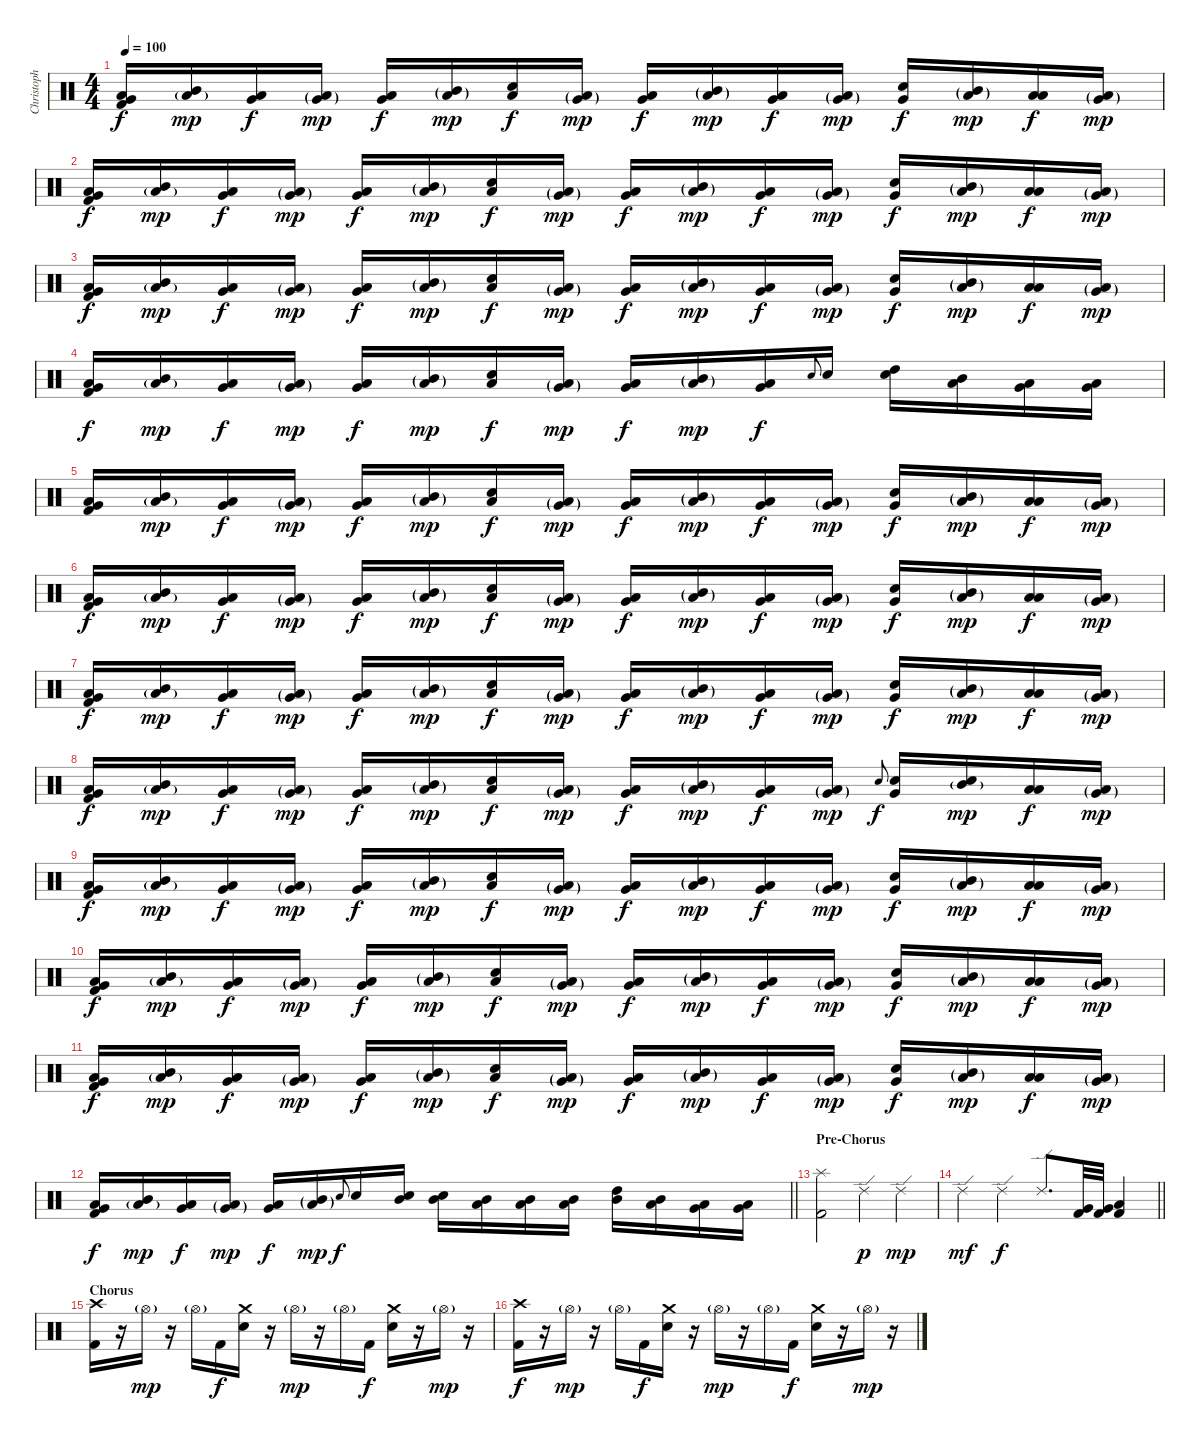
\track ("Christoph Schneider" "Christoph ") {instrument percussion}
\staff {score}
\articulation defaults
\ts (4 4)
\tempo 100
\clef neutral
\ks c
("Very Low Tom (hit)" "Low Tom (hit)" "Kick (hit) 2").16{dy f} ("Low Tom (hit)"{g} "Mid Tom (hit)").16{dy mp} ("Low Floor Tom (hit)" "Very Low Tom (hit)").16{dy f} ("Very Low Tom (hit)"{g} "Low Tom (hit)"{g}).16{dy mp} ("Very Low Tom (hit)" "Low Floor Tom (hit)").16{dy f} ("Low Tom (hit)"{g} "Mid Tom (hit)"{g}).16{dy mp} ("Low Floor Tom (hit)" "Snare (hit) 2").16{dy f} ("Low Tom (hit)"{g} "Very Low Tom (hit)"{g}).16{dy mp} ("Very Low Tom (hit)" "Low Tom (hit)").16{dy f} ("Mid Tom (hit)"{g} "Low Tom (hit)"{g}).16{dy mp} ("Low Floor Tom (hit)" "Very Low Tom (hit)").16{dy f} ("Low Tom (hit)"{g} "Very Low Tom (hit)"{g}).16{dy mp} ("Very Low Tom (hit)" "Snare (hit) 2").16{dy f} ("Mid Tom (hit)"{g} "Low Tom (hit)"{g}).16{dy mp} ("Low Floor Tom (hit)" "Low Tom (hit)").16{dy f} ("Low Tom (hit)"{g} "Very Low Tom (hit)"{g}).16{dy mp} |
("Very Low Tom (hit)" "Low Tom (hit)" "Kick (hit) 2").16{dy f} ("Low Tom (hit)"{g} "Mid Tom (hit)").16{dy mp} ("Low Floor Tom (hit)" "Very Low Tom (hit)").16{dy f} ("Very Low Tom (hit)"{g} "Low Tom (hit)"{g}).16{dy mp} ("Very Low Tom (hit)" "Low Floor Tom (hit)").16{dy f} ("Low Tom (hit)"{g} "Mid Tom (hit)"{g}).16{dy mp} ("Low Floor Tom (hit)" "Snare (hit) 2").16{dy f} ("Low Tom (hit)"{g} "Very Low Tom (hit)"{g}).16{dy mp} ("Very Low Tom (hit)" "Low Tom (hit)").16{dy f} ("Mid Tom (hit)"{g} "Low Tom (hit)"{g}).16{dy mp} ("Low Floor Tom (hit)" "Very Low Tom (hit)").16{dy f} ("Low Tom (hit)"{g} "Very Low Tom (hit)"{g}).16{dy mp} ("Very Low Tom (hit)" "Snare (hit) 2").16{dy f} ("Mid Tom (hit)"{g} "Low Tom (hit)"{g}).16{dy mp} ("Low Floor Tom (hit)" "Low Tom (hit)").16{dy f} ("Low Tom (hit)"{g} "Very Low Tom (hit)"{g}).16{dy mp} |
("Very Low Tom (hit)" "Low Tom (hit)" "Kick (hit) 2").16{dy f} ("Low Tom (hit)"{g} "Mid Tom (hit)").16{dy mp} ("Low Floor Tom (hit)" "Very Low Tom (hit)").16{dy f} ("Very Low Tom (hit)"{g} "Low Tom (hit)"{g}).16{dy mp} ("Very Low Tom (hit)" "Low Floor Tom (hit)").16{dy f} ("Low Tom (hit)"{g} "Mid Tom (hit)"{g}).16{dy mp} ("Low Floor Tom (hit)" "Snare (hit) 2").16{dy f} ("Low Tom (hit)"{g} "Very Low Tom (hit)"{g}).16{dy mp} ("Very Low Tom (hit)" "Low Tom (hit)").16{dy f} ("Mid Tom (hit)"{g} "Low Tom (hit)"{g}).16{dy mp} ("Low Floor Tom (hit)" "Very Low Tom (hit)").16{dy f} ("Low Tom (hit)"{g} "Very Low Tom (hit)"{g}).16{dy mp} ("Very Low Tom (hit)" "Snare (hit) 2").16{dy f} ("Mid Tom (hit)"{g} "Low Tom (hit)"{g}).16{dy mp} ("Low Floor Tom (hit)" "Low Tom (hit)").16{dy f} ("Low Tom (hit)"{g} "Very Low Tom (hit)"{g}).16{dy mp} |
("Very Low Tom (hit)" "Low Tom (hit)" "Kick (hit) 2").16{dy f} ("Low Tom (hit)"{g} "Mid Tom (hit)").16{dy mp} ("Low Floor Tom (hit)" "Very Low Tom (hit)").16{dy f} ("Very Low Tom (hit)"{g} "Low Tom (hit)"{g}).16{dy mp} ("Very Low Tom (hit)" "Low Floor Tom (hit)").16{dy f} ("Low Tom (hit)"{g} "Mid Tom (hit)"{g}).16{dy mp} ("Low Floor Tom (hit)" "Snare (hit) 2").16{dy f} ("Low Tom (hit)"{g} "Very Low Tom (hit)"{g}).16{dy mp} ("Very Low Tom (hit)" "Low Tom (hit)").16{dy f} ("Mid Tom (hit)"{g} "Low Tom (hit)"{g}).16{dy mp} ("Low Floor Tom (hit)" "Very Low Tom (hit)").16{dy f} "Snare (hit) 2".8{gr onbeat} "Snare (hit) 2".16 ("High Tom (hit)" "Snare (hit) 2").16 ("Mid Tom (hit)" "Low Tom (hit)").16 ("Low Tom (hit)" "Very Low Tom (hit)").16 ("Very Low Tom (hit)" "Low Floor Tom (hit)").16 |
("Very Low Tom (hit)" "Low Tom (hit)" "Kick (hit) 2").16 ("Low Tom (hit)"{g} "Mid Tom (hit)").16{dy mp} ("Low Floor Tom (hit)" "Very Low Tom (hit)").16{dy f} ("Very Low Tom (hit)"{g} "Low Tom (hit)"{g}).16{dy mp} ("Very Low Tom (hit)" "Low Floor Tom (hit)").16{dy f} ("Low Tom (hit)"{g} "Mid Tom (hit)"{g}).16{dy mp} ("Low Floor Tom (hit)" "Snare (hit) 2").16{dy f} ("Low Tom (hit)"{g} "Very Low Tom (hit)"{g}).16{dy mp} ("Very Low Tom (hit)" "Low Tom (hit)").16{dy f} ("Mid Tom (hit)"{g} "Low Tom (hit)"{g}).16{dy mp} ("Low Floor Tom (hit)" "Very Low Tom (hit)").16{dy f} ("Low Tom (hit)"{g} "Very Low Tom (hit)"{g}).16{dy mp} ("Very Low Tom (hit)" "Snare (hit) 2").16{dy f} ("Mid Tom (hit)"{g} "Low Tom (hit)"{g}).16{dy mp} ("Low Floor Tom (hit)" "Low Tom (hit)").16{dy f} ("Low Tom (hit)"{g} "Very Low Tom (hit)"{g}).16{dy mp} |
("Very Low Tom (hit)" "Low Tom (hit)" "Kick (hit) 2").16{dy f} ("Low Tom (hit)"{g} "Mid Tom (hit)").16{dy mp} ("Low Floor Tom (hit)" "Very Low Tom (hit)").16{dy f} ("Very Low Tom (hit)"{g} "Low Tom (hit)"{g}).16{dy mp} ("Very Low Tom (hit)" "Low Floor Tom (hit)").16{dy f} ("Low Tom (hit)"{g} "Mid Tom (hit)"{g}).16{dy mp} ("Low Floor Tom (hit)" "Snare (hit) 2").16{dy f} ("Low Tom (hit)"{g} "Very Low Tom (hit)"{g}).16{dy mp} ("Very Low Tom (hit)" "Low Tom (hit)").16{dy f} ("Mid Tom (hit)"{g} "Low Tom (hit)"{g}).16{dy mp} ("Low Floor Tom (hit)" "Very Low Tom (hit)").16{dy f} ("Low Tom (hit)"{g} "Very Low Tom (hit)"{g}).16{dy mp} ("Very Low Tom (hit)" "Snare (hit) 2").16{dy f} ("Mid Tom (hit)"{g} "Low Tom (hit)"{g}).16{dy mp} ("Low Floor Tom (hit)" "Low Tom (hit)").16{dy f} ("Low Tom (hit)"{g} "Very Low Tom (hit)"{g}).16{dy mp} |
("Very Low Tom (hit)" "Low Tom (hit)" "Kick (hit) 2").16{dy f} ("Low Tom (hit)"{g} "Mid Tom (hit)").16{dy mp} ("Low Floor Tom (hit)" "Very Low Tom (hit)").16{dy f} ("Very Low Tom (hit)"{g} "Low Tom (hit)"{g}).16{dy mp} ("Very Low Tom (hit)" "Low Floor Tom (hit)").16{dy f} ("Low Tom (hit)"{g} "Mid Tom (hit)"{g}).16{dy mp} ("Low Floor Tom (hit)" "Snare (hit) 2").16{dy f} ("Low Tom (hit)"{g} "Very Low Tom (hit)"{g}).16{dy mp} ("Very Low Tom (hit)" "Low Tom (hit)").16{dy f} ("Mid Tom (hit)"{g} "Low Tom (hit)"{g}).16{dy mp} ("Low Floor Tom (hit)" "Very Low Tom (hit)").16{dy f} ("Low Tom (hit)"{g} "Very Low Tom (hit)"{g}).16{dy mp} ("Very Low Tom (hit)" "Snare (hit) 2").16{dy f} ("Mid Tom (hit)"{g} "Low Tom (hit)"{g}).16{dy mp} ("Low Floor Tom (hit)" "Low Tom (hit)").16{dy f} ("Low Tom (hit)"{g} "Very Low Tom (hit)"{g}).16{dy mp} |
("Very Low Tom (hit)" "Low Tom (hit)" "Kick (hit) 2").16{dy f} ("Low Tom (hit)"{g} "Mid Tom (hit)").16{dy mp} ("Low Floor Tom (hit)" "Very Low Tom (hit)").16{dy f} ("Very Low Tom (hit)"{g} "Low Tom (hit)"{g}).16{dy mp} ("Very Low Tom (hit)" "Low Floor Tom (hit)").16{dy f} ("Low Tom (hit)"{g} "Mid Tom (hit)"{g}).16{dy mp} ("Low Floor Tom (hit)" "Snare (hit) 2").16{dy f} ("Low Tom (hit)"{g} "Very Low Tom (hit)"{g}).16{dy mp} ("Very Low Tom (hit)" "Low Tom (hit)").16{dy f} ("Mid Tom (hit)"{g} "Low Tom (hit)"{g}).16{dy mp} ("Low Floor Tom (hit)" "Very Low Tom (hit)").16{dy f} ("Low Tom (hit)"{g} "Very Low Tom (hit)"{g}).16{dy mp} "Snare (hit) 2".8{gr onbeat dy f} ("Very Low Tom (hit)" "Snare (hit) 2").16 ("Mid Tom (hit)"{g} "Snare (hit) 2").16{dy mp} ("Low Floor Tom (hit)" "Low Tom (hit)").16{dy f} ("Low Tom (hit)"{g} "Very Low Tom (hit)"{g}).16{dy mp} |
("Very Low Tom (hit)" "Low Tom (hit)" "Kick (hit) 2").16{dy f} ("Low Tom (hit)"{g} "Mid Tom (hit)").16{dy mp} ("Low Floor Tom (hit)" "Very Low Tom (hit)").16{dy f} ("Very Low Tom (hit)"{g} "Low Tom (hit)"{g}).16{dy mp} ("Very Low Tom (hit)" "Low Floor Tom (hit)").16{dy f} ("Low Tom (hit)"{g} "Mid Tom (hit)"{g}).16{dy mp} ("Low Floor Tom (hit)" "Snare (hit) 2").16{dy f} ("Low Tom (hit)"{g} "Very Low Tom (hit)"{g}).16{dy mp} ("Very Low Tom (hit)" "Low Tom (hit)").16{dy f} ("Mid Tom (hit)"{g} "Low Tom (hit)"{g}).16{dy mp} ("Low Floor Tom (hit)" "Very Low Tom (hit)").16{dy f} ("Low Tom (hit)"{g} "Very Low Tom (hit)"{g}).16{dy mp} ("Very Low Tom (hit)" "Snare (hit) 2").16{dy f} ("Mid Tom (hit)"{g} "Low Tom (hit)"{g}).16{dy mp} ("Low Floor Tom (hit)" "Low Tom (hit)").16{dy f} ("Low Tom (hit)"{g} "Very Low Tom (hit)"{g}).16{dy mp} |
("Very Low Tom (hit)" "Low Tom (hit)" "Kick (hit) 2").16{dy f} ("Low Tom (hit)"{g} "Mid Tom (hit)").16{dy mp} ("Low Floor Tom (hit)" "Very Low Tom (hit)").16{dy f} ("Very Low Tom (hit)"{g} "Low Tom (hit)"{g}).16{dy mp} ("Very Low Tom (hit)" "Low Floor Tom (hit)").16{dy f} ("Low Tom (hit)"{g} "Mid Tom (hit)"{g}).16{dy mp} ("Low Floor Tom (hit)" "Snare (hit) 2").16{dy f} ("Low Tom (hit)"{g} "Very Low Tom (hit)"{g}).16{dy mp} ("Very Low Tom (hit)" "Low Tom (hit)").16{dy f} ("Mid Tom (hit)"{g} "Low Tom (hit)"{g}).16{dy mp} ("Low Floor Tom (hit)" "Very Low Tom (hit)").16{dy f} ("Low Tom (hit)"{g} "Very Low Tom (hit)"{g}).16{dy mp} ("Very Low Tom (hit)" "Snare (hit) 2").16{dy f} ("Mid Tom (hit)"{g} "Low Tom (hit)"{g}).16{dy mp} ("Low Floor Tom (hit)" "Low Tom (hit)").16{dy f} ("Low Tom (hit)"{g} "Very Low Tom (hit)"{g}).16{dy mp} |
("Very Low Tom (hit)" "Low Tom (hit)" "Kick (hit) 2").16{dy f} ("Low Tom (hit)"{g} "Mid Tom (hit)").16{dy mp} ("Low Floor Tom (hit)" "Very Low Tom (hit)").16{dy f} ("Very Low Tom (hit)"{g} "Low Tom (hit)"{g}).16{dy mp} ("Very Low Tom (hit)" "Low Floor Tom (hit)").16{dy f} ("Low Tom (hit)"{g} "Mid Tom (hit)"{g}).16{dy mp} ("Low Floor Tom (hit)" "Snare (hit) 2").16{dy f} ("Low Tom (hit)"{g} "Very Low Tom (hit)"{g}).16{dy mp} ("Very Low Tom (hit)" "Low Tom (hit)").16{dy f} ("Mid Tom (hit)"{g} "Low Tom (hit)"{g}).16{dy mp} ("Low Floor Tom (hit)" "Very Low Tom (hit)").16{dy f} ("Low Tom (hit)"{g} "Very Low Tom (hit)"{g}).16{dy mp} ("Very Low Tom (hit)" "Snare (hit) 2").16{dy f} ("Mid Tom (hit)"{g} "Low Tom (hit)"{g}).16{dy mp} ("Low Floor Tom (hit)" "Low Tom (hit)").16{dy f} ("Low Tom (hit)"{g} "Very Low Tom (hit)"{g}).16{dy mp} |
\barLineRight lightlight
("Very Low Tom (hit)" "Low Tom (hit)" "Kick (hit) 2").16{dy f} ("Low Tom (hit)"{g} "Mid Tom (hit)").16{dy mp} ("Low Floor Tom (hit)" "Very Low Tom (hit)").16{dy f} ("Very Low Tom (hit)"{g} "Low Tom (hit)"{g}).16{dy mp} ("Very Low Tom (hit)" "Low Floor Tom (hit)").16{dy f} ("Low Tom (hit)"{g} "Mid Tom (hit)"{g}).16{dy mp} "Snare (hit) 2".8{gr onbeat dy f} "Snare (hit) 2".16 ("Mid Tom (hit)" "Snare (hit) 2").16 ("Mid Tom (hit)" "Snare (hit) 2").16 ("Mid Tom (hit)" "Low Tom (hit)").16 ("Mid Tom (hit)" "Low Tom (hit)").16 ("Mid Tom (hit)" "Low Tom (hit)").16 ("High Tom (hit)" "Mid Tom (hit)").16 ("Mid Tom (hit)" "Low Tom (hit)").16 ("Low Tom (hit)" "Very Low Tom (hit)").16 ("Very Low Tom (hit)" "Low Floor Tom (hit)").16 |
\section ("" "Pre-Chorus")
("Splash (hit)" "Kick (hit) 2").2 "Ride (edge) 2".4{dy p} "Ride (edge) 2".4{dy mp} |
\barLineRight lightlight "Ride (edge) 2".4{dy mf} "Ride (edge) 2".4{dy f} "Ride (edge) 2".8{d}
("Very Low Tom (hit)" "Kick (hit) 2").32 ("Very Low Tom (hit)" "Kick (hit) 2").32 ("Low Floor Tom (hit)" "Kick (hit) 2").4 |
\section ("" "Chorus")
("Crash high (hit)" "Kick (hit) 2").16 r.16 "Hi-Hat (open)"{g}.16{dy mp} r.16 "Hi-Hat (open)"{g}.16 "Kick (hit) 2".16{dy f} ("Crash medium (hit)" "Snare (hit) 2").16 r.16 "Hi-Hat (open)"{g}.16{dy mp} r.16 "Hi-Hat (open)"{g}.16 "Kick (hit) 2".16{dy f} ("Crash medium (hit)" "Snare (hit) 2").16 r.16 "Hi-Hat (open)"{g}.16{dy mp} r.16 |
("Crash high (hit)" "Kick (hit) 2").16{dy f} r.16 "Hi-Hat (open)"{g}.16{dy mp} r.16 "Hi-Hat (open)"{g}.16 "Kick (hit) 2".16{dy f} ("Crash medium (hit)" "Snare (hit) 2").16 r.16 "Hi-Hat (open)"{g}.16{dy mp} r.16 "Hi-Hat (open)"{g}.16 "Kick (hit) 2".16{dy f} ("Crash medium (hit)" "Snare (hit) 2").16 r.16 "Hi-Hat (open)"{g}.16{dy mp} r.16
